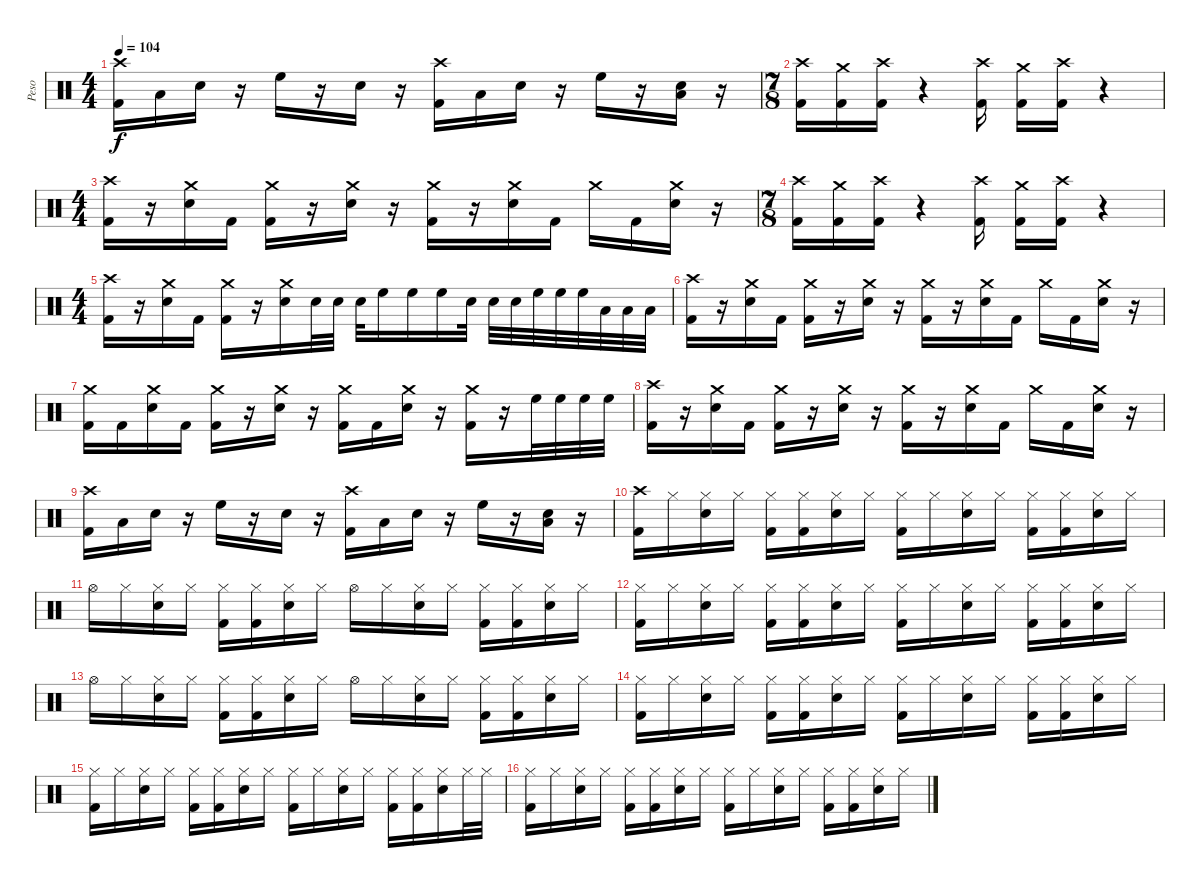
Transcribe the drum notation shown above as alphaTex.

\track ("Peso" "Peso") {instrument percussion}
\staff {score}
\articulation defaults
\ts (4 4)
\tempo 104
\clef neutral
\ks c
("Crash high (hit)" "Kick (hit) 2").16{dy f} "Low Floor Tom (hit)".16 "Snare (hit) 2".16 r.16 "High Floor Tom (hit)".16 r.16 "Snare (hit) 2".16 r.16 ("Crash high (hit)" "Kick (hit) 2").16 "Low Floor Tom (hit)".16 "Snare (hit) 2".16 r.16 "High Floor Tom (hit)".16 r.16 ("Low Floor Tom (hit)" "Snare (hit) 2").16 r.16 |
\ts (7 8)
("Crash high (hit)" "Kick (hit) 2").16 ("Crash medium (hit)" "Kick (hit) 2").16 ("Crash high (hit)" "Kick (hit) 2").16 r.4 ("Crash high (hit)" "Kick (hit) 2").16 ("Crash medium (hit)" "Kick (hit) 2").16 ("Crash high (hit)" "Kick (hit) 2").16 r.4 |
\ts (4 4)
("Crash high (hit)" "Kick (hit) 2").16 r.16 ("Crash medium (hit)" "Snare (hit) 2").16 "Kick (hit) 2".16 ("Crash medium (hit)" "Kick (hit) 2").16 r.16 ("Crash medium (hit)" "Snare (hit) 2").16 r.16 ("Crash medium (hit)" "Kick (hit) 2").16 r.16 ("Crash medium (hit)" "Snare (hit) 2").16 "Kick (hit) 2".16 "Crash medium (hit)".16 "Kick (hit) 2".16 ("Crash medium (hit)" "Snare (hit) 2").16 r.16 |
\ts (7 8)
("Crash high (hit)" "Kick (hit) 2").16 ("Crash medium (hit)" "Kick (hit) 2").16 ("Crash high (hit)" "Kick (hit) 2").16 r.4 ("Crash high (hit)" "Kick (hit) 2").16 ("Crash medium (hit)" "Kick (hit) 2").16 ("Crash high (hit)" "Kick (hit) 2").16 r.4 |
\ts (4 4)
("Crash high (hit)" "Kick (hit) 2").16 r.16 ("Crash medium (hit)" "Snare (hit) 2").16 "Kick (hit) 2".16 ("Crash medium (hit)" "Kick (hit) 2").16 r.16 ("Crash medium (hit)" "Snare (hit) 2").16 "Snare (hit) 2".32 "Snare (hit) 2".32 "Snare (hit) 2".32 "High Floor Tom (hit)".16 "High Floor Tom (hit)".16 "High Floor Tom (hit)".16 "Snare (hit) 2".32 "Snare (hit) 2".32 "Snare (hit) 2".32 "High Floor Tom (hit)".32 "High Floor Tom (hit)".32 "High Floor Tom (hit)".32 "Low Floor Tom (hit)".32 "Low Floor Tom (hit)".32 "Low Floor Tom (hit)".32 |
("Crash high (hit)" "Kick (hit) 2").16 r.16 ("Crash medium (hit)" "Snare (hit) 2").16 "Kick (hit) 2".16 ("Crash medium (hit)" "Kick (hit) 2").16 r.16 ("Crash medium (hit)" "Snare (hit) 2").16 r.16 ("Crash medium (hit)" "Kick (hit) 2").16 r.16 ("Crash medium (hit)" "Snare (hit) 2").16 "Kick (hit) 2".16 "Crash medium (hit)".16 "Kick (hit) 2".16 ("Crash medium (hit)" "Snare (hit) 2").16 r.16 |
("Crash medium (hit)" "Kick (hit) 2").16 "Kick (hit) 2".16 ("Crash medium (hit)" "Snare (hit) 2").16 "Kick (hit) 2".16 ("Crash medium (hit)" "Kick (hit) 2").16 r.16 ("Crash medium (hit)" "Snare (hit) 2").16 r.16 ("Crash medium (hit)" "Kick (hit) 2").16 "Kick (hit) 2".16 ("Crash medium (hit)" "Snare (hit) 2").16 r.16 ("Crash medium (hit)" "Kick (hit) 2").16 r.16 "High Floor Tom (hit)".32 "High Floor Tom (hit)".32 "High Floor Tom (hit)".32 "High Floor Tom (hit)".32 |
("Crash high (hit)" "Kick (hit) 2").16 r.16 ("Crash medium (hit)" "Snare (hit) 2").16 "Kick (hit) 2".16 ("Crash medium (hit)" "Kick (hit) 2").16 r.16 ("Crash medium (hit)" "Snare (hit) 2").16 r.16 ("Crash medium (hit)" "Kick (hit) 2").16 r.16 ("Crash medium (hit)" "Snare (hit) 2").16 "Kick (hit) 2".16 "Crash medium (hit)".16 "Kick (hit) 2".16 ("Crash medium (hit)" "Snare (hit) 2").16 r.16 |
("Crash high (hit)" "Kick (hit) 2").16 "Low Floor Tom (hit)".16 "Snare (hit) 2".16 r.16 "High Floor Tom (hit)".16 r.16 "Snare (hit) 2".16 r.16 ("Crash high (hit)" "Kick (hit) 2").16 "Low Floor Tom (hit)".16 "Snare (hit) 2".16 r.16 "High Floor Tom (hit)".16 r.16 ("Low Floor Tom (hit)" "Snare (hit) 2").16 r.16 |
("Crash high (hit)" "Kick (hit) 2").16 "Hi-Hat (closed)".16 ("Hi-Hat (closed)" "Snare (hit) 2").16 "Hi-Hat (closed)".16 ("Hi-Hat (closed)" "Kick (hit) 2").16 ("Hi-Hat (closed)" "Kick (hit) 2").16 ("Hi-Hat (closed)" "Snare (hit) 2").16 "Hi-Hat (closed)".16 ("Hi-Hat (closed)" "Kick (hit) 2").16 "Hi-Hat (closed)".16 ("Hi-Hat (closed)" "Snare (hit) 2").16 "Hi-Hat (closed)".16 ("Hi-Hat (closed)" "Kick (hit) 2").16 ("Hi-Hat (closed)" "Kick (hit) 2").16 ("Hi-Hat (closed)" "Snare (hit) 2").16 "Hi-Hat (closed)".16 |
"Hi-Hat (open)".16 "Hi-Hat (closed)".16 ("Hi-Hat (closed)" "Snare (hit) 2").16 "Hi-Hat (closed)".16 ("Hi-Hat (closed)" "Kick (hit) 2").16 ("Hi-Hat (closed)" "Kick (hit) 2").16 ("Hi-Hat (closed)" "Snare (hit) 2").16 "Hi-Hat (closed)".16 "Hi-Hat (open)".16 "Hi-Hat (closed)".16 ("Hi-Hat (closed)" "Snare (hit) 2").16 "Hi-Hat (closed)".16 ("Hi-Hat (closed)" "Kick (hit) 2").16 ("Hi-Hat (closed)" "Kick (hit) 2").16 ("Hi-Hat (closed)" "Snare (hit) 2").16 "Hi-Hat (closed)".16 |
("Hi-Hat (closed)" "Kick (hit) 2").16 "Hi-Hat (closed)".16 ("Hi-Hat (closed)" "Snare (hit) 2").16 "Hi-Hat (closed)".16 ("Hi-Hat (closed)" "Kick (hit) 2").16 ("Hi-Hat (closed)" "Kick (hit) 2").16 ("Hi-Hat (closed)" "Snare (hit) 2").16 "Hi-Hat (closed)".16 ("Hi-Hat (closed)" "Kick (hit) 2").16 "Hi-Hat (closed)".16 ("Hi-Hat (closed)" "Snare (hit) 2").16 "Hi-Hat (closed)".16 ("Hi-Hat (closed)" "Kick (hit) 2").16 ("Hi-Hat (closed)" "Kick (hit) 2").16 ("Hi-Hat (closed)" "Snare (hit) 2").16 "Hi-Hat (closed)".16 |
"Hi-Hat (open)".16 "Hi-Hat (closed)".16 ("Hi-Hat (closed)" "Snare (hit) 2").16 "Hi-Hat (closed)".16 ("Hi-Hat (closed)" "Kick (hit) 2").16 ("Hi-Hat (closed)" "Kick (hit) 2").16 ("Hi-Hat (closed)" "Snare (hit) 2").16 "Hi-Hat (closed)".16 "Hi-Hat (open)".16 "Hi-Hat (closed)".16 ("Hi-Hat (closed)" "Snare (hit) 2").16 "Hi-Hat (closed)".16 ("Hi-Hat (closed)" "Kick (hit) 2").16 ("Hi-Hat (closed)" "Kick (hit) 2").16 ("Hi-Hat (closed)" "Snare (hit) 2").16 "Hi-Hat (closed)".16 |
("Hi-Hat (closed)" "Kick (hit) 2").16 "Hi-Hat (closed)".16 ("Hi-Hat (closed)" "Snare (hit) 2").16 "Hi-Hat (closed)".16 ("Hi-Hat (closed)" "Kick (hit) 2").16 ("Hi-Hat (closed)" "Kick (hit) 2").16 ("Hi-Hat (closed)" "Snare (hit) 2").16 "Hi-Hat (closed)".16 ("Hi-Hat (closed)" "Kick (hit) 2").16 "Hi-Hat (closed)".16 ("Hi-Hat (closed)" "Snare (hit) 2").16 "Hi-Hat (closed)".16 ("Hi-Hat (closed)" "Kick (hit) 2").16 ("Hi-Hat (closed)" "Kick (hit) 2").16 ("Hi-Hat (closed)" "Snare (hit) 2").16 "Hi-Hat (closed)".16 |
("Hi-Hat (closed)" "Kick (hit) 2").16 "Hi-Hat (closed)".16 ("Hi-Hat (closed)" "Snare (hit) 2").16 "Hi-Hat (closed)".16 ("Hi-Hat (closed)" "Kick (hit) 2").16 ("Hi-Hat (closed)" "Kick (hit) 2").16 ("Hi-Hat (closed)" "Snare (hit) 2").16 "Hi-Hat (closed)".16 ("Hi-Hat (closed)" "Kick (hit) 2").16 "Hi-Hat (closed)".16 ("Hi-Hat (closed)" "Snare (hit) 2").16 "Hi-Hat (closed)".16 ("Hi-Hat (closed)" "Kick (hit) 2").16 ("Hi-Hat (closed)" "Kick (hit) 2").16 ("Hi-Hat (closed)" "Snare (hit) 2").16 "Hi-Hat (closed)".32 "Hi-Hat (closed)".32 |
("Hi-Hat (closed)" "Kick (hit) 2").16 "Hi-Hat (closed)".16 ("Hi-Hat (closed)" "Snare (hit) 2").16 "Hi-Hat (closed)".16 ("Hi-Hat (closed)" "Kick (hit) 2").16 ("Hi-Hat (closed)" "Kick (hit) 2").16 ("Hi-Hat (closed)" "Snare (hit) 2").16 "Hi-Hat (closed)".16 ("Hi-Hat (closed)" "Kick (hit) 2").16 "Hi-Hat (closed)".16 ("Hi-Hat (closed)" "Snare (hit) 2").16 "Hi-Hat (closed)".16 ("Hi-Hat (closed)" "Kick (hit) 2").16 ("Hi-Hat (closed)" "Kick (hit) 2").16 ("Hi-Hat (closed)" "Snare (hit) 2").16 "Hi-Hat (closed)".16
